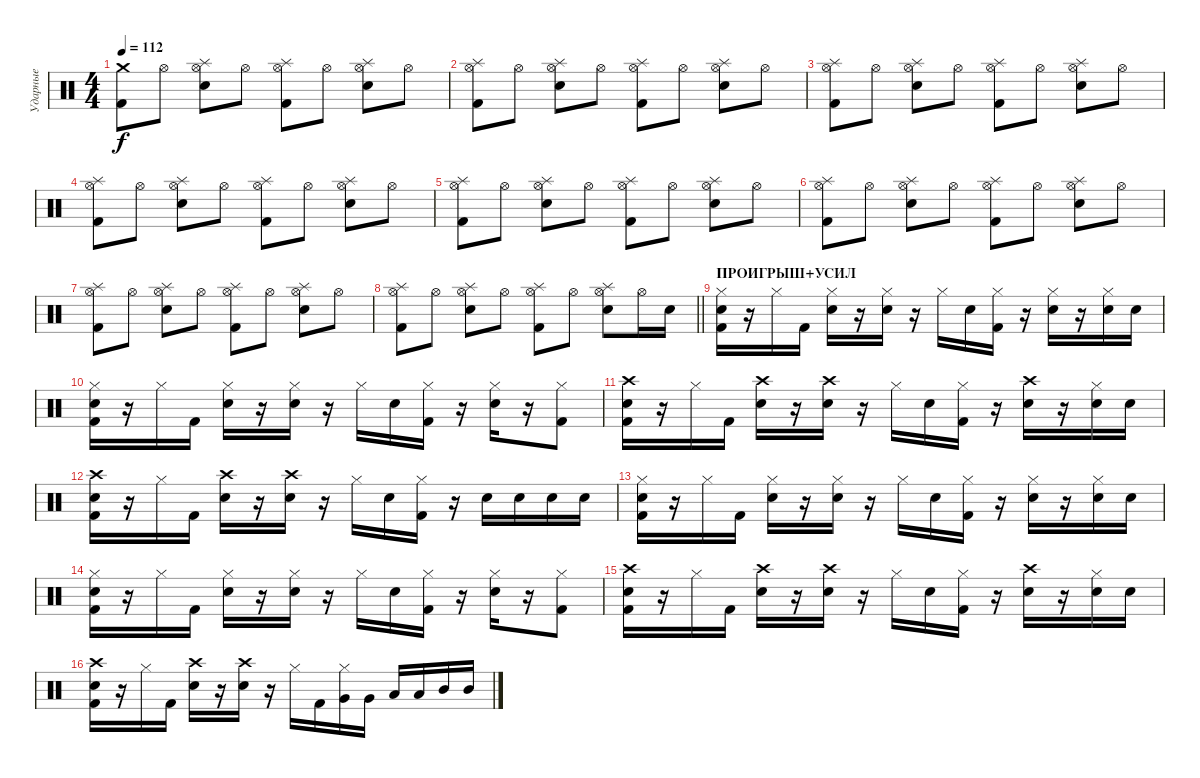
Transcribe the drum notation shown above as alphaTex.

\track ("Ударные" "Ударные") {instrument percussion}
\staff {score}
\articulation defaults
\ts (4 4)
\tempo 112
\clef neutral
\ks c
("Crash medium (hit)" "Kick (hit) 2").8{dy f} "Hi-Hat (open)".8 ("Hi-Hat (open)" "Splash (hit)" "Snare (hit) 2").8 "Hi-Hat (open)".8 ("Hi-Hat (open)" "Splash (hit)" "Kick (hit) 2").8 "Hi-Hat (open)".8 ("Hi-Hat (open)" "Splash (hit)" "Snare (hit) 2").8 "Hi-Hat (open)".8 |
("Hi-Hat (open)" "Splash (hit)" "Kick (hit) 2").8 "Hi-Hat (open)".8 ("Hi-Hat (open)" "Splash (hit)" "Snare (hit) 2").8 "Hi-Hat (open)".8 ("Hi-Hat (open)" "Splash (hit)" "Kick (hit) 2").8 "Hi-Hat (open)".8 ("Hi-Hat (open)" "Splash (hit)" "Snare (hit) 2").8 "Hi-Hat (open)".8 |
("Hi-Hat (open)" "Splash (hit)" "Kick (hit) 2").8 "Hi-Hat (open)".8 ("Hi-Hat (open)" "Splash (hit)" "Snare (hit) 2").8 "Hi-Hat (open)".8 ("Hi-Hat (open)" "Splash (hit)" "Kick (hit) 2").8 "Hi-Hat (open)".8 ("Hi-Hat (open)" "Splash (hit)" "Snare (hit) 2").8 "Hi-Hat (open)".8 |
("Hi-Hat (open)" "Splash (hit)" "Kick (hit) 2").8 "Hi-Hat (open)".8 ("Hi-Hat (open)" "Splash (hit)" "Snare (hit) 2").8 "Hi-Hat (open)".8 ("Hi-Hat (open)" "Splash (hit)" "Kick (hit) 2").8 "Hi-Hat (open)".8 ("Hi-Hat (open)" "Splash (hit)" "Snare (hit) 2").8 "Hi-Hat (open)".8 |
("Hi-Hat (open)" "Splash (hit)" "Kick (hit) 2").8 "Hi-Hat (open)".8 ("Hi-Hat (open)" "Splash (hit)" "Snare (hit) 2").8 "Hi-Hat (open)".8 ("Hi-Hat (open)" "Splash (hit)" "Kick (hit) 2").8 "Hi-Hat (open)".8 ("Hi-Hat (open)" "Splash (hit)" "Snare (hit) 2").8 "Hi-Hat (open)".8 |
("Hi-Hat (open)" "Splash (hit)" "Kick (hit) 2").8 "Hi-Hat (open)".8 ("Hi-Hat (open)" "Splash (hit)" "Snare (hit) 2").8 "Hi-Hat (open)".8 ("Hi-Hat (open)" "Splash (hit)" "Kick (hit) 2").8 "Hi-Hat (open)".8 ("Hi-Hat (open)" "Splash (hit)" "Snare (hit) 2").8 "Hi-Hat (open)".8 |
("Hi-Hat (open)" "Splash (hit)" "Kick (hit) 2").8 "Hi-Hat (open)".8 ("Hi-Hat (open)" "Splash (hit)" "Snare (hit) 2").8 "Hi-Hat (open)".8 ("Hi-Hat (open)" "Splash (hit)" "Kick (hit) 2").8 "Hi-Hat (open)".8 ("Hi-Hat (open)" "Splash (hit)" "Snare (hit) 2").8 "Hi-Hat (open)".8 |
\barLineRight lightlight
("Hi-Hat (open)" "Splash (hit)" "Kick (hit) 2").8 "Hi-Hat (open)".8 ("Hi-Hat (open)" "Splash (hit)" "Snare (hit) 2").8 "Hi-Hat (open)".8 ("Hi-Hat (open)" "Splash (hit)" "Kick (hit) 2").8 "Hi-Hat (open)".8 ("Hi-Hat (open)" "Splash (hit)" "Snare (hit) 2").8 "Hi-Hat (open)".16 "Snare (hit) 2".16 |
\section ("" "ПРОИГРЫШ+УСИЛ")
("Hi-Hat (closed)" "Snare (hit) 2" "Kick (hit) 2").16 r.16 "Hi-Hat (closed)".16 "Kick (hit) 2".16 ("Hi-Hat (closed)" "Snare (hit) 2").16 r.16 ("Hi-Hat (closed)" "Snare (hit) 2").16 r.16 "Hi-Hat (closed)".16 "Snare (hit) 2".16 ("Hi-Hat (closed)" "Kick (hit) 2").16 r.16 ("Hi-Hat (closed)" "Snare (hit) 2").16 r.16 ("Hi-Hat (closed)" "Snare (hit) 2").16 "Snare (hit) 2".16 |
("Hi-Hat (closed)" "Snare (hit) 2" "Kick (hit) 2").16 r.16 "Hi-Hat (closed)".16 "Kick (hit) 2".16 ("Hi-Hat (closed)" "Snare (hit) 2").16 r.16 ("Hi-Hat (closed)" "Snare (hit) 2").16 r.16 "Hi-Hat (closed)".16 "Snare (hit) 2".16 ("Hi-Hat (closed)" "Kick (hit) 2").16 r.16 ("Hi-Hat (closed)" "Snare (hit) 2").16 r.16 ("Hi-Hat (closed)" "Kick (hit) 2").8 |
("Crash high (hit)" "Snare (hit) 2" "Kick (hit) 2").16 r.16 "Hi-Hat (closed)".16 "Kick (hit) 2".16 ("Crash high (hit)" "Snare (hit) 2").16 r.16 ("Crash high (hit)" "Snare (hit) 2").16 r.16 "Hi-Hat (closed)".16 "Snare (hit) 2".16 ("Hi-Hat (closed)" "Kick (hit) 2").16 r.16 ("Crash high (hit)" "Snare (hit) 2").16 r.16 ("Hi-Hat (closed)" "Snare (hit) 2").16 "Snare (hit) 2".16 |
("Crash high (hit)" "Snare (hit) 2" "Kick (hit) 2").16 r.16 "Hi-Hat (closed)".16 "Kick (hit) 2".16 ("Crash high (hit)" "Snare (hit) 2").16 r.16 ("Crash high (hit)" "Snare (hit) 2").16 r.16 "Hi-Hat (closed)".16 "Snare (hit) 2".16 ("Hi-Hat (closed)" "Kick (hit) 2").16 r.16 "Snare (hit) 2".16 "Snare (hit) 2".16 "Snare (hit) 2".16 "Snare (hit) 2".16 |
("Hi-Hat (closed)" "Snare (hit) 2" "Kick (hit) 2").16 r.16 "Hi-Hat (closed)".16 "Kick (hit) 2".16 ("Hi-Hat (closed)" "Snare (hit) 2").16 r.16 ("Hi-Hat (closed)" "Snare (hit) 2").16 r.16 "Hi-Hat (closed)".16 "Snare (hit) 2".16 ("Hi-Hat (closed)" "Kick (hit) 2").16 r.16 ("Hi-Hat (closed)" "Snare (hit) 2").16 r.16 ("Hi-Hat (closed)" "Snare (hit) 2").16 "Snare (hit) 2".16 |
("Hi-Hat (closed)" "Snare (hit) 2" "Kick (hit) 2").16 r.16 "Hi-Hat (closed)".16 "Kick (hit) 2".16 ("Hi-Hat (closed)" "Snare (hit) 2").16 r.16 ("Hi-Hat (closed)" "Snare (hit) 2").16 r.16 "Hi-Hat (closed)".16 "Snare (hit) 2".16 ("Hi-Hat (closed)" "Kick (hit) 2").16 r.16 ("Hi-Hat (closed)" "Snare (hit) 2").16 r.16 ("Hi-Hat (closed)" "Kick (hit) 2").8 |
("Crash high (hit)" "Snare (hit) 2" "Kick (hit) 2").16 r.16 "Hi-Hat (closed)".16 "Kick (hit) 2".16 ("Crash high (hit)" "Snare (hit) 2").16 r.16 ("Crash high (hit)" "Snare (hit) 2").16 r.16 "Hi-Hat (closed)".16 "Snare (hit) 2".16 ("Hi-Hat (closed)" "Kick (hit) 2").16 r.16 ("Crash high (hit)" "Snare (hit) 2").16 r.16 ("Hi-Hat (closed)" "Snare (hit) 2").16 "Snare (hit) 2".16 |
("Crash high (hit)" "Snare (hit) 2" "Kick (hit) 2").16 r.16 "Hi-Hat (closed)".16 "Kick (hit) 2".16 ("Crash high (hit)" "Snare (hit) 2").16 r.16 ("Crash high (hit)" "Snare (hit) 2").16 r.16 "Hi-Hat (closed)".16 "Kick (hit) 2".16 ("Hi-Hat (closed)" "Very Low Tom (hit)").16 "Very Low Tom (hit)".16 "Low Tom (hit)".16 "Low Tom (hit)".16 "Mid Tom (hit)".16 "Mid Tom (hit)".16
